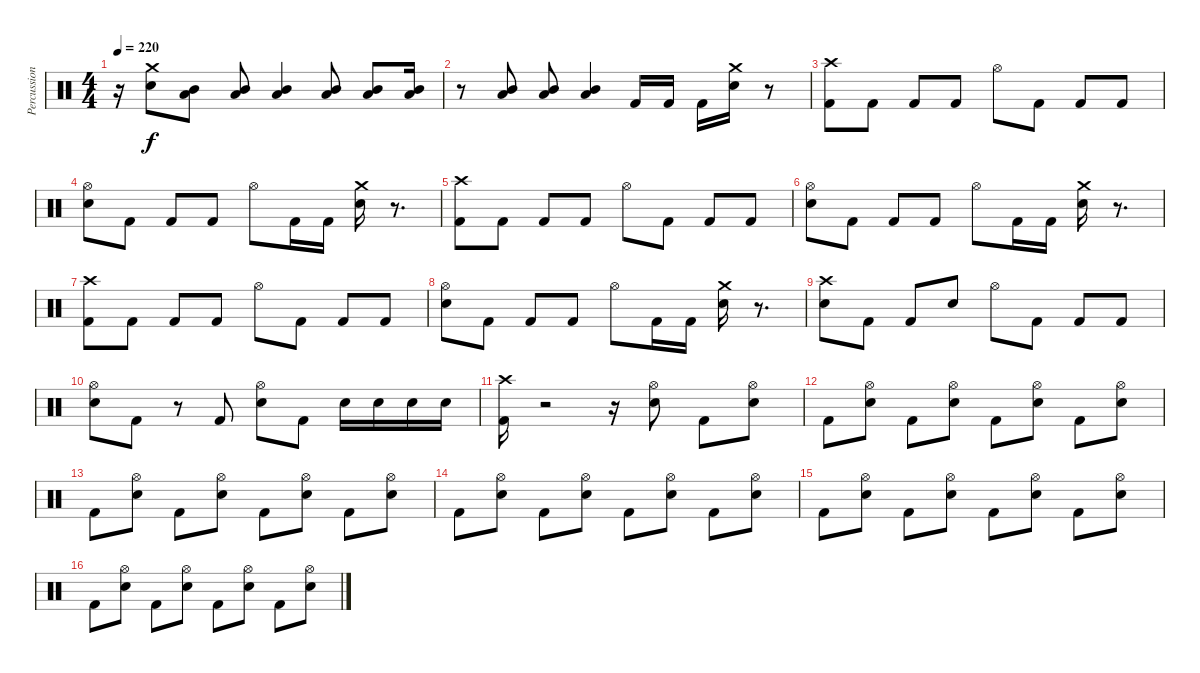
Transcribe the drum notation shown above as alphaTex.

\track ("Percussion (Dan Wilding)" "Percussion") {instrument percussion}
\staff {score}
\articulation defaults
\ts (4 4)
\tempo 220
\clef neutral
\ks c
r.16{dy f} ("Crash medium (hit)" "Electric Snare (hit)").8 ("Mid Tom (hit)" "Low Tom (hit)").8 ("Mid Tom (hit)" "Low Tom (hit)").8 ("Mid Tom (hit)" "Low Tom (hit)").4 ("Mid Tom (hit)" "Low Tom (hit)").8 ("Mid Tom (hit)" "Low Tom (hit)").8 ("Mid Tom (hit)" "Low Tom (hit)").16 |
r.8 ("Mid Tom (hit)" "Low Tom (hit)").8 ("Mid Tom (hit)" "Low Tom (hit)").8 ("Mid Tom (hit)" "Low Tom (hit)").4 "Kick (hit) 2".16 "Kick (hit) 2".16 "Kick (hit) 2".16 ("Crash medium (hit)" "Electric Snare (hit)").16 r.8 |
("Crash high (hit)" "Kick (hit) 2").8 "Kick (hit) 2".8 "Kick (hit) 2".8 "Kick (hit) 2".8 "Hi-Hat (open)".8 "Kick (hit) 2".8 "Kick (hit) 2".8 "Kick (hit) 2".8 |
("Hi-Hat (open)" "Electric Snare (hit)").8 "Kick (hit) 2".8 "Kick (hit) 2".8 "Kick (hit) 2".8 "Hi-Hat (open)".8 "Kick (hit) 2".16 "Kick (hit) 2".16 ("Crash medium (hit)" "Electric Snare (hit)").16 r.8{d} |
("Crash high (hit)" "Kick (hit) 2").8 "Kick (hit) 2".8 "Kick (hit) 2".8 "Kick (hit) 2".8 "Hi-Hat (open)".8 "Kick (hit) 2".8 "Kick (hit) 2".8 "Kick (hit) 2".8 |
("Hi-Hat (open)" "Electric Snare (hit)").8 "Kick (hit) 2".8 "Kick (hit) 2".8 "Kick (hit) 2".8 "Hi-Hat (open)".8 "Kick (hit) 2".16 "Kick (hit) 2".16 ("Crash medium (hit)" "Electric Snare (hit)").16 r.8{d} |
("Crash high (hit)" "Kick (hit) 2").8 "Kick (hit) 2".8 "Kick (hit) 2".8 "Kick (hit) 2".8 "Hi-Hat (open)".8 "Kick (hit) 2".8 "Kick (hit) 2".8 "Kick (hit) 2".8 |
("Hi-Hat (open)" "Electric Snare (hit)").8 "Kick (hit) 2".8 "Kick (hit) 2".8 "Kick (hit) 2".8 "Hi-Hat (open)".8 "Kick (hit) 2".16 "Kick (hit) 2".16 ("Crash medium (hit)" "Electric Snare (hit)").16 r.8{d} |
("Crash high (hit)" "Electric Snare (hit)").8 "Kick (hit) 2".8 "Kick (hit) 2".8 "Electric Snare (hit)".8 "Hi-Hat (open)".8 "Kick (hit) 2".8 "Kick (hit) 2".8 "Kick (hit) 2".8 |
("Hi-Hat (open)" "Electric Snare (hit)").8 "Kick (hit) 2".8 r.8 "Kick (hit) 2".8 ("Hi-Hat (open)" "Electric Snare (hit)").8 "Kick (hit) 2".8 "Electric Snare (hit)".16 "Electric Snare (hit)".16 "Electric Snare (hit)".16 "Electric Snare (hit)".16 |
("Crash high (hit)" "Kick (hit) 2").16 r.2 r.16 ("Hi-Hat (open)" "Electric Snare (hit)").8 "Kick (hit) 2".8 ("Hi-Hat (open)" "Electric Snare (hit)").8 |
"Kick (hit) 2".8 ("Hi-Hat (open)" "Electric Snare (hit)").8 "Kick (hit) 2".8 ("Hi-Hat (open)" "Electric Snare (hit)").8 "Kick (hit) 2".8 ("Hi-Hat (open)" "Electric Snare (hit)").8 "Kick (hit) 2".8 ("Hi-Hat (open)" "Electric Snare (hit)").8 |
"Kick (hit) 2".8 ("Hi-Hat (open)" "Electric Snare (hit)").8 "Kick (hit) 2".8 ("Hi-Hat (open)" "Electric Snare (hit)").8 "Kick (hit) 2".8 ("Hi-Hat (open)" "Electric Snare (hit)").8 "Kick (hit) 2".8 ("Hi-Hat (open)" "Electric Snare (hit)").8 |
"Kick (hit) 2".8 ("Hi-Hat (open)" "Electric Snare (hit)").8 "Kick (hit) 2".8 ("Hi-Hat (open)" "Electric Snare (hit)").8 "Kick (hit) 2".8 ("Hi-Hat (open)" "Electric Snare (hit)").8 "Kick (hit) 2".8 ("Hi-Hat (open)" "Electric Snare (hit)").8 |
"Kick (hit) 2".8 ("Hi-Hat (open)" "Electric Snare (hit)").8 "Kick (hit) 2".8 ("Hi-Hat (open)" "Electric Snare (hit)").8 "Kick (hit) 2".8 ("Hi-Hat (open)" "Electric Snare (hit)").8 "Kick (hit) 2".8 ("Hi-Hat (open)" "Electric Snare (hit)").8 |
"Kick (hit) 2".8 ("Hi-Hat (open)" "Electric Snare (hit)").8 "Kick (hit) 2".8 ("Hi-Hat (open)" "Electric Snare (hit)").8 "Kick (hit) 2".8 ("Hi-Hat (open)" "Electric Snare (hit)").8 "Kick (hit) 2".8 ("Hi-Hat (open)" "Electric Snare (hit)").8
